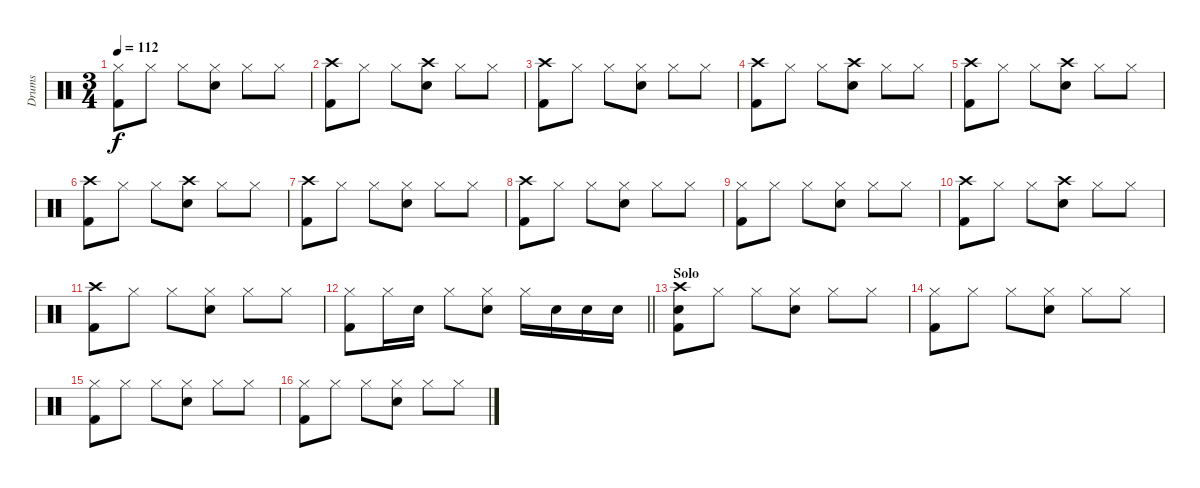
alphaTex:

\track ("Drums" "Drums") {instrument percussion}
\staff {score}
\articulation defaults
\ts (3 4)
\tempo 112
\clef neutral
\ks c
("Hi-Hat (closed)" "Kick (hit) 2").8{dy f} "Hi-Hat (closed)".8 "Hi-Hat (closed)".8 ("Hi-Hat (closed)" "Snare (hit) 2").8 "Hi-Hat (closed)".8 "Hi-Hat (closed)".8 |
("Crash high (hit)" "Kick (hit) 2").8 "Hi-Hat (closed)".8 "Hi-Hat (closed)".8 ("Crash high (hit)" "Snare (hit) 2").8 "Hi-Hat (closed)".8 "Hi-Hat (closed)".8 |
("Crash high (hit)" "Kick (hit) 2").8 "Hi-Hat (closed)".8 "Hi-Hat (closed)".8 ("Hi-Hat (closed)" "Snare (hit) 2").8 "Hi-Hat (closed)".8 "Hi-Hat (closed)".8 |
("Crash high (hit)" "Kick (hit) 2").8 "Hi-Hat (closed)".8 "Hi-Hat (closed)".8 ("Crash high (hit)" "Snare (hit) 2").8 "Hi-Hat (closed)".8 "Hi-Hat (closed)".8 |
("Crash high (hit)" "Kick (hit) 2").8 "Hi-Hat (closed)".8 "Hi-Hat (closed)".8 ("Crash high (hit)" "Snare (hit) 2").8 "Hi-Hat (closed)".8 "Hi-Hat (closed)".8 |
("Crash high (hit)" "Kick (hit) 2").8 "Hi-Hat (closed)".8 "Hi-Hat (closed)".8 ("Crash high (hit)" "Snare (hit) 2").8 "Hi-Hat (closed)".8 "Hi-Hat (closed)".8 |
("Crash high (hit)" "Kick (hit) 2").8 "Hi-Hat (closed)".8 "Hi-Hat (closed)".8 ("Hi-Hat (closed)" "Snare (hit) 2").8 "Hi-Hat (closed)".8 "Hi-Hat (closed)".8 |
("Crash high (hit)" "Kick (hit) 2").8 "Hi-Hat (closed)".8 "Hi-Hat (closed)".8 ("Hi-Hat (closed)" "Snare (hit) 2").8 "Hi-Hat (closed)".8 "Hi-Hat (closed)".8 |
("Hi-Hat (closed)" "Kick (hit) 2").8 "Hi-Hat (closed)".8 "Hi-Hat (closed)".8 ("Hi-Hat (closed)" "Snare (hit) 2").8 "Hi-Hat (closed)".8 "Hi-Hat (closed)".8 |
("Crash high (hit)" "Kick (hit) 2").8 "Hi-Hat (closed)".8 "Hi-Hat (closed)".8 ("Crash high (hit)" "Snare (hit) 2").8 "Hi-Hat (closed)".8 "Hi-Hat (closed)".8 |
("Crash high (hit)" "Kick (hit) 2").8 "Hi-Hat (closed)".8 "Hi-Hat (closed)".8 ("Hi-Hat (closed)" "Snare (hit) 2").8 "Hi-Hat (closed)".8 "Hi-Hat (closed)".8 |
\barLineRight lightlight
("Hi-Hat (closed)" "Kick (hit) 2").8 "Hi-Hat (closed)".16 "Snare (hit) 2".16 "Hi-Hat (closed)".8 ("Hi-Hat (closed)" "Snare (hit) 2").8 "Hi-Hat (closed)".16 "Snare (hit) 2".16 "Snare (hit) 2".16 "Snare (hit) 2".16 |
\section ("" "Solo")
("Crash high (hit)" "Snare (hit) 2" "Kick (hit) 2").8 "Hi-Hat (closed)".8 "Hi-Hat (closed)".8 ("Hi-Hat (closed)" "Snare (hit) 2").8 "Hi-Hat (closed)".8 "Hi-Hat (closed)".8 |
("Hi-Hat (closed)" "Kick (hit) 2").8 "Hi-Hat (closed)".8 "Hi-Hat (closed)".8 ("Hi-Hat (closed)" "Snare (hit) 2").8 "Hi-Hat (closed)".8 "Hi-Hat (closed)".8 |
("Hi-Hat (closed)" "Kick (hit) 2").8 "Hi-Hat (closed)".8 "Hi-Hat (closed)".8 ("Hi-Hat (closed)" "Snare (hit) 2").8 "Hi-Hat (closed)".8 "Hi-Hat (closed)".8 |
("Hi-Hat (closed)" "Kick (hit) 2").8 "Hi-Hat (closed)".8 "Hi-Hat (closed)".8 ("Hi-Hat (closed)" "Snare (hit) 2").8 "Hi-Hat (closed)".8 "Hi-Hat (closed)".8
